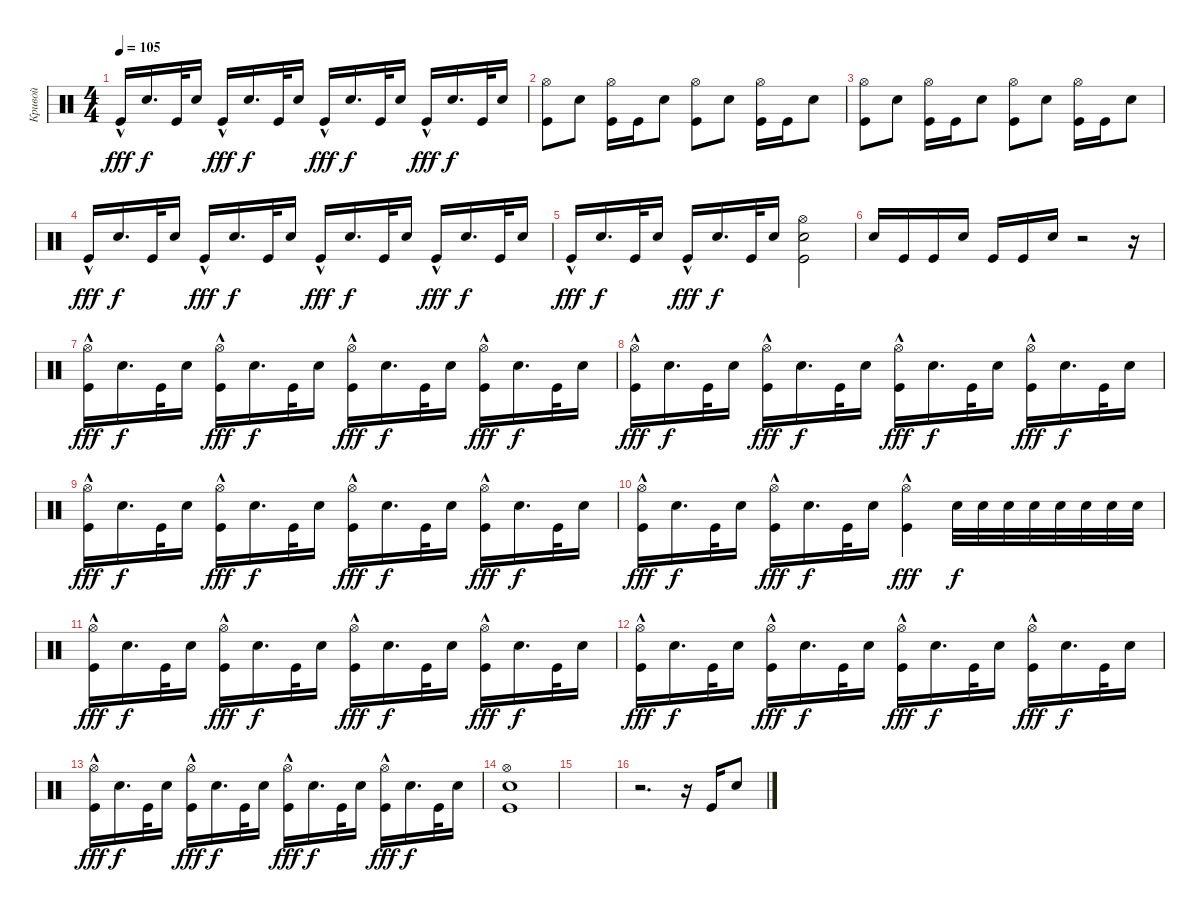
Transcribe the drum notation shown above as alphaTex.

\track ("Кривой" "Кривой") {instrument percussion}
\staff {score}
\articulation defaults
\ts (4 4)
\tempo 105
\clef neutral
\ks c "Kick (hit)"{hac}.16{dy fff} "Snare (hit) 2".16{d dy f} "Kick (hit)".32 "Snare (hit) 2".16 "Kick (hit)"{hac}.16{dy fff} "Snare (hit) 2".16{d dy f} "Kick (hit)".32 "Snare (hit) 2".16 "Kick (hit)"{hac}.16{dy fff} "Snare (hit) 2".16{d dy f} "Kick (hit)".32 "Snare (hit) 2".16 "Kick (hit)"{hac}.16{dy fff} "Snare (hit) 2".16{d dy f} "Kick (hit)".32 "Snare (hit) 2".16
|
("Kick (hit)" "Hi-Hat (open)").8 "Snare (hit) 2".8 ("Kick (hit)" "Hi-Hat (open)").16 "Kick (hit)".16 "Snare (hit) 2".8 ("Kick (hit)" "Hi-Hat (open)").8 "Snare (hit) 2".8 ("Kick (hit)" "Hi-Hat (open)").16 "Kick (hit)".16 "Snare (hit) 2".8 |
("Kick (hit)" "Hi-Hat (open)").8 "Snare (hit) 2".8 ("Kick (hit)" "Hi-Hat (open)").16 "Kick (hit)".16 "Snare (hit) 2".8 ("Kick (hit)" "Hi-Hat (open)").8 "Snare (hit) 2".8 ("Kick (hit)" "Hi-Hat (open)").16 "Kick (hit)".16 "Snare (hit) 2".8 |
"Kick (hit)"{hac}.16{dy fff} "Snare (hit) 2".16{d dy f} "Kick (hit)".32 "Snare (hit) 2".16 "Kick (hit)"{hac}.16{dy fff} "Snare (hit) 2".16{d dy f} "Kick (hit)".32 "Snare (hit) 2".16 "Kick (hit)"{hac}.16{dy fff} "Snare (hit) 2".16{d dy f} "Kick (hit)".32 "Snare (hit) 2".16 "Kick (hit)"{hac}.16{dy fff} "Snare (hit) 2".16{d dy f} "Kick (hit)".32 "Snare (hit) 2".16 |
"Kick (hit)"{hac}.16{dy fff} "Snare (hit) 2".16{d dy f} "Kick (hit)".32 "Snare (hit) 2".16 "Kick (hit)"{hac}.16{dy fff} "Snare (hit) 2".16{d dy f} "Kick (hit)".32 "Snare (hit) 2".16 ("Kick (hit)" "Snare (hit) 2" "Hi-Hat (open)").2 |
"Snare (hit) 2".16 "Kick (hit)".16 "Kick (hit)".16 "Snare (hit) 2".16 "Kick (hit)".16 "Kick (hit)".16 "Snare (hit) 2".16 r.2 r.16 |
("Kick (hit)"{hac} "Hi-Hat (open)").16{dy fff} "Snare (hit) 2".16{d dy f} "Kick (hit)".32 "Snare (hit) 2".16 ("Kick (hit)"{hac} "Hi-Hat (open)").16{dy fff} "Snare (hit) 2".16{d dy f} "Kick (hit)".32 "Snare (hit) 2".16 ("Kick (hit)"{hac} "Hi-Hat (open)").16{dy fff} "Snare (hit) 2".16{d dy f} "Kick (hit)".32 "Snare (hit) 2".16 ("Kick (hit)"{hac} "Hi-Hat (open)").16{dy fff} "Snare (hit) 2".16{d dy f} "Kick (hit)".32 "Snare (hit) 2".16 |
("Kick (hit)"{hac} "Hi-Hat (open)").16{dy fff} "Snare (hit) 2".16{d dy f} "Kick (hit)".32 "Snare (hit) 2".16 ("Kick (hit)"{hac} "Hi-Hat (open)").16{dy fff} "Snare (hit) 2".16{d dy f} "Kick (hit)".32 "Snare (hit) 2".16 ("Kick (hit)"{hac} "Hi-Hat (open)").16{dy fff} "Snare (hit) 2".16{d dy f} "Kick (hit)".32 "Snare (hit) 2".16 ("Kick (hit)"{hac} "Hi-Hat (open)").16{dy fff} "Snare (hit) 2".16{d dy f} "Kick (hit)".32 "Snare (hit) 2".16 |
("Kick (hit)"{hac} "Hi-Hat (open)").16{dy fff} "Snare (hit) 2".16{d dy f} "Kick (hit)".32 "Snare (hit) 2".16 ("Kick (hit)"{hac} "Hi-Hat (open)").16{dy fff} "Snare (hit) 2".16{d dy f} "Kick (hit)".32 "Snare (hit) 2".16 ("Kick (hit)"{hac} "Hi-Hat (open)").16{dy fff} "Snare (hit) 2".16{d dy f} "Kick (hit)".32 "Snare (hit) 2".16 ("Kick (hit)"{hac} "Hi-Hat (open)").16{dy fff} "Snare (hit) 2".16{d dy f} "Kick (hit)".32 "Snare (hit) 2".16 |
("Kick (hit)"{hac} "Hi-Hat (open)").16{dy fff} "Snare (hit) 2".16{d dy f} "Kick (hit)".32 "Snare (hit) 2".16 ("Kick (hit)"{hac} "Hi-Hat (open)").16{dy fff} "Snare (hit) 2".16{d dy f} "Kick (hit)".32 "Snare (hit) 2".16 ("Kick (hit)"{hac} "Hi-Hat (open)").4{dy fff} "Snare (hit) 2".32{dy f} "Snare (hit) 2".32 "Snare (hit) 2".32 "Snare (hit) 2".32 "Snare (hit) 2".32 "Snare (hit) 2".32 "Snare (hit) 2".32 "Snare (hit) 2".32 |
("Kick (hit)"{hac} "Hi-Hat (open)").16{dy fff} "Snare (hit) 2".16{d dy f} "Kick (hit)".32 "Snare (hit) 2".16 ("Kick (hit)"{hac} "Hi-Hat (open)").16{dy fff} "Snare (hit) 2".16{d dy f} "Kick (hit)".32 "Snare (hit) 2".16 ("Kick (hit)"{hac} "Hi-Hat (open)").16{dy fff} "Snare (hit) 2".16{d dy f} "Kick (hit)".32 "Snare (hit) 2".16 ("Kick (hit)"{hac} "Hi-Hat (open)").16{dy fff} "Snare (hit) 2".16{d dy f} "Kick (hit)".32 "Snare (hit) 2".16 |
("Kick (hit)"{hac} "Hi-Hat (open)").16{dy fff} "Snare (hit) 2".16{d dy f} "Kick (hit)".32 "Snare (hit) 2".16 ("Kick (hit)"{hac} "Hi-Hat (open)").16{dy fff} "Snare (hit) 2".16{d dy f} "Kick (hit)".32 "Snare (hit) 2".16 ("Kick (hit)"{hac} "Hi-Hat (open)").16{dy fff} "Snare (hit) 2".16{d dy f} "Kick (hit)".32 "Snare (hit) 2".16 ("Kick (hit)"{hac} "Hi-Hat (open)").16{dy fff} "Snare (hit) 2".16{d dy f} "Kick (hit)".32 "Snare (hit) 2".16 |
("Kick (hit)"{hac} "Hi-Hat (open)").16{dy fff} "Snare (hit) 2".16{d dy f} "Kick (hit)".32 "Snare (hit) 2".16 ("Kick (hit)"{hac} "Hi-Hat (open)").16{dy fff} "Snare (hit) 2".16{d dy f} "Kick (hit)".32 "Snare (hit) 2".16 ("Kick (hit)"{hac} "Hi-Hat (open)").16{dy fff} "Snare (hit) 2".16{d dy f} "Kick (hit)".32 "Snare (hit) 2".16 ("Kick (hit)"{hac} "Hi-Hat (open)").16{dy fff} "Snare (hit) 2".16{d dy f} "Kick (hit)".32 "Snare (hit) 2".16 |
("Kick (hit)" "Snare (hit) 2" "Hi-Hat (open)").1 |
|
r.2{d} r.16 "Kick (hit)".16 "Snare (hit) 2".8
